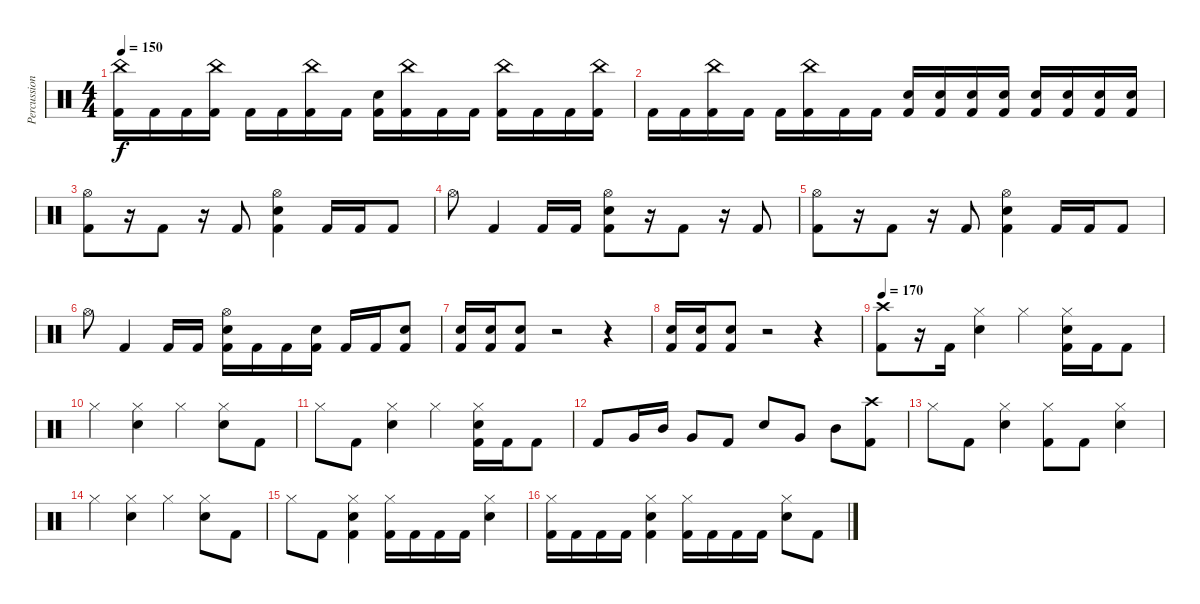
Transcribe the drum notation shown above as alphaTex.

\track ("Percussion" "Percussion") {instrument percussion}
\staff {score}
\articulation defaults
\ts (4 4)
\tempo 150
\clef neutral
\ks c
("China (hit)" "Kick (hit) 2").16{dy f} "Kick (hit) 2".16 "Kick (hit) 2".16 ("China (hit)" "Kick (hit) 2").16 "Kick (hit) 2".16 "Kick (hit) 2".16 ("China (hit)" "Kick (hit) 2").16 "Kick (hit) 2".16 ("Electric Snare (hit)" "Kick (hit) 2").16 ("China (hit)" "Kick (hit) 2").16 "Kick (hit) 2".16 "Kick (hit) 2".16 ("China (hit)" "Kick (hit) 2").16 "Kick (hit) 2".16 "Kick (hit) 2".16 ("China (hit)" "Kick (hit) 2").16 |
"Kick (hit) 2".16 "Kick (hit) 2".16 ("China (hit)" "Kick (hit) 2").16 "Kick (hit) 2".16 "Kick (hit) 2".16 ("China (hit)" "Kick (hit) 2").16 "Kick (hit) 2".16 "Kick (hit) 2".16 ("Electric Snare (hit)" "Kick (hit) 2").16 ("Electric Snare (hit)" "Kick (hit) 2").16 ("Electric Snare (hit)" "Kick (hit) 2").16 ("Electric Snare (hit)" "Kick (hit) 2").16 ("Electric Snare (hit)" "Kick (hit) 2").16 ("Electric Snare (hit)" "Kick (hit) 2").16 ("Electric Snare (hit)" "Kick (hit) 2").16 ("Electric Snare (hit)" "Kick (hit) 2").16 |
("Hi-Hat (open)" "Kick (hit) 2").8 r.16 "Kick (hit) 2".8 r.16 "Kick (hit) 2".8 ("Hi-Hat (open)" "Electric Snare (hit)" "Kick (hit) 2").4 "Kick (hit) 2".16 "Kick (hit) 2".16 "Kick (hit) 2".8 |
"Hi-Hat (open)".8 "Kick (hit) 2".4 "Kick (hit) 2".16 "Kick (hit) 2".16 ("Hi-Hat (open)" "Electric Snare (hit)" "Kick (hit) 2").8 r.16 "Kick (hit) 2".8 r.16 "Kick (hit) 2".8 |
("Hi-Hat (open)" "Kick (hit) 2").8 r.16 "Kick (hit) 2".8 r.16 "Kick (hit) 2".8 ("Hi-Hat (open)" "Electric Snare (hit)" "Kick (hit) 2").4 "Kick (hit) 2".16 "Kick (hit) 2".16 "Kick (hit) 2".8 |
"Hi-Hat (open)".8 "Kick (hit) 2".4 "Kick (hit) 2".16 "Kick (hit) 2".16 ("Hi-Hat (open)" "Electric Snare (hit)" "Kick (hit) 2").16 "Kick (hit) 2".16 "Kick (hit) 2".16 ("Electric Snare (hit)" "Kick (hit) 2").16 "Kick (hit) 2".16 "Kick (hit) 2".16 ("Electric Snare (hit)" "Kick (hit) 2").8 |
("Kick (hit) 2" "Electric Snare (hit)").16 ("Kick (hit) 2" "Electric Snare (hit)").16 ("Kick (hit) 2" "Electric Snare (hit)").8 r.2 r.4 |
("Kick (hit) 2" "Electric Snare (hit)").16 ("Kick (hit) 2" "Electric Snare (hit)").16 ("Electric Snare (hit)" "Kick (hit) 2").8 r.2 r.4 |
\tempo 170
("Crash high (hit)" "Kick (hit) 2").8 r.16 "Kick (hit) 2".16 ("Hi-Hat (closed)" "Electric Snare (hit)").4 "Hi-Hat (closed)".4 ("Hi-Hat (closed)" "Electric Snare (hit)" "Kick (hit) 2").16 "Kick (hit) 2".16 "Kick (hit) 2".8 |
"Hi-Hat (closed)".4 ("Hi-Hat (closed)" "Electric Snare (hit)").4 "Hi-Hat (closed)".4 ("Hi-Hat (closed)" "Electric Snare (hit)").8 "Kick (hit) 2".8 |
"Hi-Hat (closed)".8 "Kick (hit) 2".8 ("Hi-Hat (closed)" "Electric Snare (hit)").4 "Hi-Hat (closed)".4 ("Hi-Hat (closed)" "Electric Snare (hit)" "Kick (hit) 2").16 "Kick (hit) 2".16 "Kick (hit) 2".8 |
"Kick (hit) 2".8 "Very Low Tom (hit)".16 "Mid Tom (hit)".16 "Very Low Tom (hit)".8 "Kick (hit) 2".8 "Electric Snare (hit)".8 "Very Low Tom (hit)".8 "Mid Tom (hit)".8 ("Crash high (hit)" "Kick (hit) 2").8 |
"Hi-Hat (closed)".8 "Kick (hit) 2".8 ("Hi-Hat (closed)" "Electric Snare (hit)").4 ("Hi-Hat (closed)" "Kick (hit) 2").8 "Kick (hit) 2".8 ("Hi-Hat (closed)" "Electric Snare (hit)").4 |
"Hi-Hat (closed)".4 ("Hi-Hat (closed)" "Electric Snare (hit)").4 "Hi-Hat (closed)".4 ("Hi-Hat (closed)" "Electric Snare (hit)").8 "Kick (hit) 2".8 |
"Hi-Hat (closed)".8 "Kick (hit) 2".8 ("Hi-Hat (closed)" "Electric Snare (hit)" "Kick (hit) 2").4 ("Hi-Hat (closed)" "Kick (hit) 2").16 "Kick (hit) 2".16 "Kick (hit) 2".16 "Kick (hit) 2".16 ("Hi-Hat (closed)" "Electric Snare (hit)").4 |
("Hi-Hat (closed)" "Kick (hit) 2").16 "Kick (hit) 2".16 "Kick (hit) 2".16 "Kick (hit) 2".16 ("Hi-Hat (closed)" "Electric Snare (hit)" "Kick (hit) 2").4 ("Hi-Hat (closed)" "Kick (hit) 2").16 "Kick (hit) 2".16 "Kick (hit) 2".16 "Kick (hit) 2".16 ("Hi-Hat (closed)" "Electric Snare (hit)").8 "Kick (hit) 2".8
